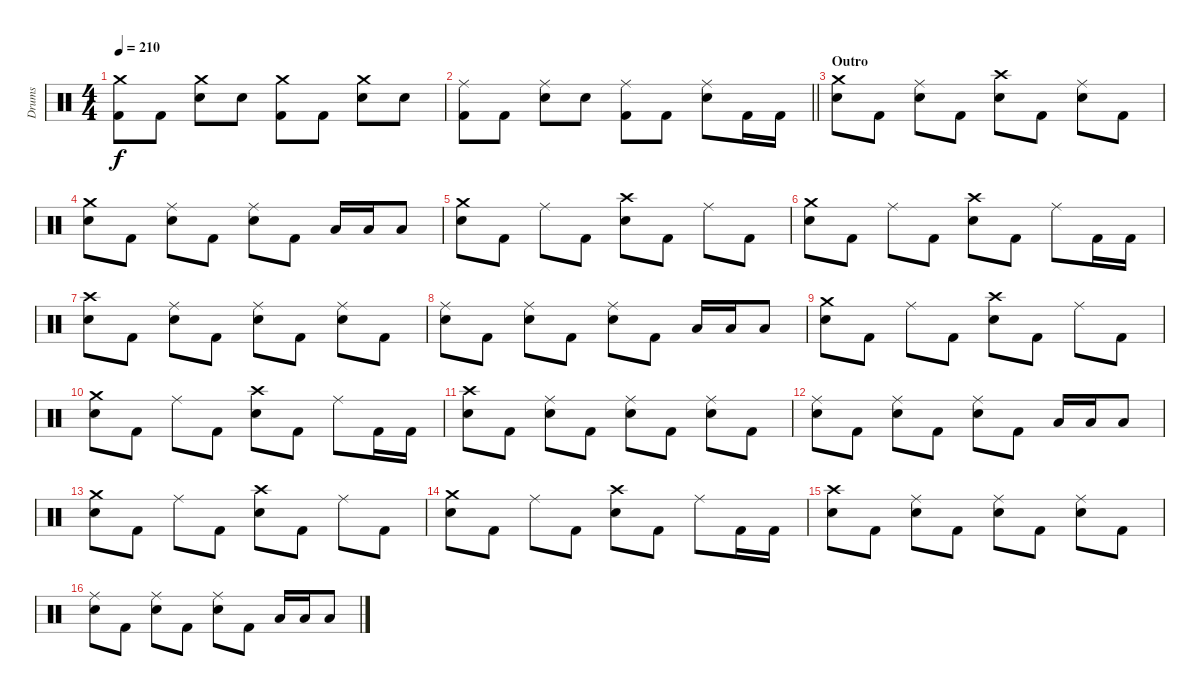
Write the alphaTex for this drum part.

\track ("Drums" "Drums") {instrument percussion}
\staff {score}
\articulation defaults
\ts (4 4)
\tempo 210
\clef neutral
\ks c
("Crash medium (hit)" "Kick (hit) 2").8{dy f} "Kick (hit) 2".8 ("Crash medium (hit)" "Electric Snare (hit)").8 "Electric Snare (hit)".8 ("Crash medium (hit)" "Kick (hit) 2").8 "Kick (hit) 2".8 ("Crash medium (hit)" "Electric Snare (hit)").8 "Electric Snare (hit)".8 |
\barLineRight lightlight
("Ride (middle)" "Kick (hit) 2").8 "Kick (hit) 2".8 ("Ride (middle)" "Electric Snare (hit)").8 "Electric Snare (hit)".8 ("Ride (middle)" "Kick (hit) 2").8 "Kick (hit) 2".8 ("Ride (middle)" "Electric Snare (hit)").8 "Kick (hit) 2".16 "Kick (hit) 2".16 |
\section ("" "Outro")
("Crash medium (hit)" "Electric Snare (hit)").8 "Kick (hit) 2".8 ("Ride (middle)" "Electric Snare (hit)").8 "Kick (hit) 2".8 ("Crash high (hit)" "Electric Snare (hit)").8 "Kick (hit) 2".8 ("Ride (middle)" "Electric Snare (hit)").8 "Kick (hit) 2".8 |
("Crash medium (hit)" "Electric Snare (hit)").8 "Kick (hit) 2".8 ("Ride (middle)" "Electric Snare (hit)").8 "Kick (hit) 2".8 ("Ride (middle)" "Electric Snare (hit)").8 "Kick (hit) 2".8 "Low Tom (hit)".16 "Low Tom (hit)".16 "Low Tom (hit)".8 |
("Crash medium (hit)" "Electric Snare (hit)").8 "Kick (hit) 2".8 "Ride (middle)".8 "Kick (hit) 2".8 ("Crash high (hit)" "Electric Snare (hit)").8 "Kick (hit) 2".8 "Ride (middle)".8 "Kick (hit) 2".8 |
("Crash medium (hit)" "Electric Snare (hit)").8 "Kick (hit) 2".8 "Ride (middle)".8 "Kick (hit) 2".8 ("Crash high (hit)" "Electric Snare (hit)").8 "Kick (hit) 2".8 "Ride (middle)".8 "Kick (hit) 2".16 "Kick (hit) 2".16 |
("Crash high (hit)" "Electric Snare (hit)").8 "Kick (hit) 2".8 ("Ride (middle)" "Electric Snare (hit)").8 "Kick (hit) 2".8 ("Ride (middle)" "Electric Snare (hit)").8 "Kick (hit) 2".8 ("Ride (middle)" "Electric Snare (hit)").8 "Kick (hit) 2".8 |
("Ride (middle)" "Electric Snare (hit)").8 "Kick (hit) 2".8 ("Ride (middle)" "Electric Snare (hit)").8 "Kick (hit) 2".8 ("Ride (middle)" "Electric Snare (hit)").8 "Kick (hit) 2".8 "Low Floor Tom (hit)".16 "Low Floor Tom (hit)".16 "Low Floor Tom (hit)".8 |
("Crash medium (hit)" "Electric Snare (hit)").8 "Kick (hit) 2".8 "Ride (middle)".8 "Kick (hit) 2".8 ("Crash high (hit)" "Electric Snare (hit)").8 "Kick (hit) 2".8 "Ride (middle)".8 "Kick (hit) 2".8 |
("Crash medium (hit)" "Electric Snare (hit)").8 "Kick (hit) 2".8 "Ride (middle)".8 "Kick (hit) 2".8 ("Crash high (hit)" "Electric Snare (hit)").8 "Kick (hit) 2".8 "Ride (middle)".8 "Kick (hit) 2".16 "Kick (hit) 2".16 |
("Crash high (hit)" "Electric Snare (hit)").8 "Kick (hit) 2".8 ("Ride (middle)" "Electric Snare (hit)").8 "Kick (hit) 2".8 ("Ride (middle)" "Electric Snare (hit)").8 "Kick (hit) 2".8 ("Ride (middle)" "Electric Snare (hit)").8 "Kick (hit) 2".8 |
("Ride (middle)" "Electric Snare (hit)").8 "Kick (hit) 2".8 ("Ride (middle)" "Electric Snare (hit)").8 "Kick (hit) 2".8 ("Ride (middle)" "Electric Snare (hit)").8 "Kick (hit) 2".8 "Low Floor Tom (hit)".16 "Low Floor Tom (hit)".16 "Low Floor Tom (hit)".8 |
("Crash medium (hit)" "Electric Snare (hit)").8 "Kick (hit) 2".8 "Ride (middle)".8 "Kick (hit) 2".8 ("Crash high (hit)" "Electric Snare (hit)").8 "Kick (hit) 2".8 "Ride (middle)".8 "Kick (hit) 2".8 |
("Crash medium (hit)" "Electric Snare (hit)").8 "Kick (hit) 2".8 "Ride (middle)".8 "Kick (hit) 2".8 ("Crash high (hit)" "Electric Snare (hit)").8 "Kick (hit) 2".8 "Ride (middle)".8 "Kick (hit) 2".16 "Kick (hit) 2".16 |
("Crash high (hit)" "Electric Snare (hit)").8 "Kick (hit) 2".8 ("Ride (middle)" "Electric Snare (hit)").8 "Kick (hit) 2".8 ("Ride (middle)" "Electric Snare (hit)").8 "Kick (hit) 2".8 ("Ride (middle)" "Electric Snare (hit)").8 "Kick (hit) 2".8 |
("Ride (middle)" "Electric Snare (hit)").8 "Kick (hit) 2".8 ("Ride (middle)" "Electric Snare (hit)").8 "Kick (hit) 2".8 ("Ride (middle)" "Electric Snare (hit)").8 "Kick (hit) 2".8 "Low Floor Tom (hit)".16 "Low Floor Tom (hit)".16 "Low Floor Tom (hit)".8
